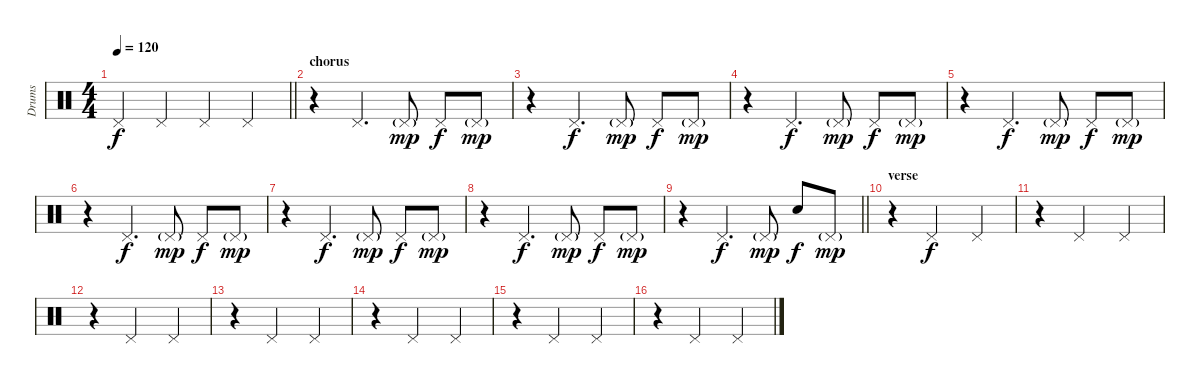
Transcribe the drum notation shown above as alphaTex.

\track ("Drums" "Drums") {instrument percussion}
\staff {score}
\articulation defaults
\ts (4 4)
\tempo 120
\clef neutral
\barLineRight lightlight
\ks c "Pedal Hi-Hat (hit)".4{dy f} "Pedal Hi-Hat (hit)".4 "Pedal Hi-Hat (hit)".4 "Pedal Hi-Hat (hit)".4
|
\section ("" "chorus")
r.4 "Pedal Hi-Hat (hit)".4{d} "Pedal Hi-Hat (hit)"{g}.8{dy mp} "Pedal Hi-Hat (hit)".8{dy f} "Pedal Hi-Hat (hit)"{g}.8{dy mp} |
r.4 "Pedal Hi-Hat (hit)".4{d dy f} "Pedal Hi-Hat (hit)"{g}.8{dy mp} "Pedal Hi-Hat (hit)".8{dy f} "Pedal Hi-Hat (hit)"{g}.8{dy mp} |
r.4 "Pedal Hi-Hat (hit)".4{d dy f} "Pedal Hi-Hat (hit)"{g}.8{dy mp} "Pedal Hi-Hat (hit)".8{dy f} "Pedal Hi-Hat (hit)"{g}.8{dy mp} |
r.4 "Pedal Hi-Hat (hit)".4{d dy f} "Pedal Hi-Hat (hit)"{g}.8{dy mp} "Pedal Hi-Hat (hit)".8{dy f} "Pedal Hi-Hat (hit)"{g}.8{dy mp} |
r.4 "Pedal Hi-Hat (hit)".4{d dy f} "Pedal Hi-Hat (hit)"{g}.8{dy mp} "Pedal Hi-Hat (hit)".8{dy f} "Pedal Hi-Hat (hit)"{g}.8{dy mp} |
r.4 "Pedal Hi-Hat (hit)".4{d dy f} "Pedal Hi-Hat (hit)"{g}.8{dy mp} "Pedal Hi-Hat (hit)".8{dy f} "Pedal Hi-Hat (hit)"{g}.8{dy mp} |
r.4 "Pedal Hi-Hat (hit)".4{d dy f} "Pedal Hi-Hat (hit)"{g}.8{dy mp} "Pedal Hi-Hat (hit)".8{dy f} "Pedal Hi-Hat (hit)"{g}.8{dy mp} |
\barLineRight lightlight
r.4 "Pedal Hi-Hat (hit)".4{d dy f} "Pedal Hi-Hat (hit)"{g}.8{dy mp} "Electric Snare (hit)".8{dy f} "Pedal Hi-Hat (hit)"{g}.8{dy mp} |
\section ("" "verse")
r.4 "Pedal Hi-Hat (hit)".2{dy f} "Pedal Hi-Hat (hit)".4 |
r.4 "Pedal Hi-Hat (hit)".2 "Pedal Hi-Hat (hit)".4 |
r.4 "Pedal Hi-Hat (hit)".2 "Pedal Hi-Hat (hit)".4 |
r.4 "Pedal Hi-Hat (hit)".2 "Pedal Hi-Hat (hit)".4 |
r.4 "Pedal Hi-Hat (hit)".2 "Pedal Hi-Hat (hit)".4 |
r.4 "Pedal Hi-Hat (hit)".2 "Pedal Hi-Hat (hit)".4 |
r.4 "Pedal Hi-Hat (hit)".2 "Pedal Hi-Hat (hit)".4
